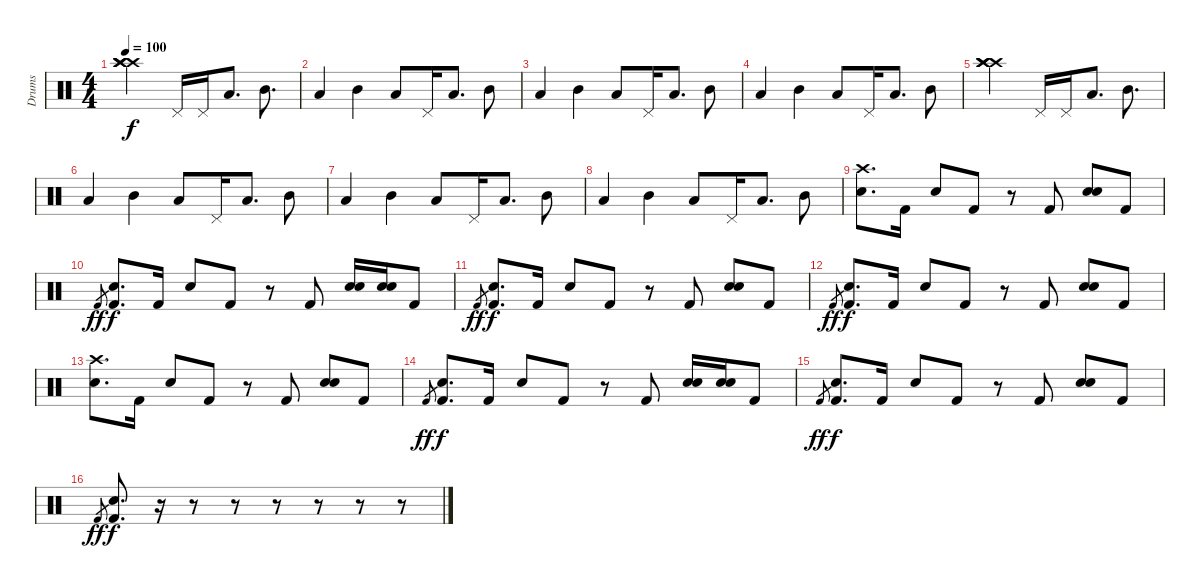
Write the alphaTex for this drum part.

\track ("Drums" "Drums") {instrument percussion}
\staff {score}
\articulation defaults
\ts (4 4)
\tempo 100
\clef neutral
\ks c
("Crash high (hit)" "Crash high (hit)" "Crash high (hit)" "Crash high (hit)").2{dy f} "Pedal Hi-Hat (hit)".16 "Pedal Hi-Hat (hit)".16 "Low Tom (hit)".8{d} "Mid Tom (hit)".8{d} |
"Low Tom (hit)".4 "Mid Tom (hit)".4 "Low Tom (hit)".8 "Pedal Hi-Hat (hit)".16 "Low Tom (hit)".8{d} "Mid Tom (hit)".8 |
"Low Tom (hit)".4 "Mid Tom (hit)".4 "Low Tom (hit)".8 "Pedal Hi-Hat (hit)".16 "Low Tom (hit)".8{d} "Mid Tom (hit)".8 |
"Low Tom (hit)".4 "Mid Tom (hit)".4 "Low Tom (hit)".8 "Pedal Hi-Hat (hit)".16 "Low Tom (hit)".8{d} "Mid Tom (hit)".8 |
("Crash high (hit)" "Crash high (hit)" "Crash high (hit)" "Crash high (hit)").2 "Pedal Hi-Hat (hit)".16 "Pedal Hi-Hat (hit)".16 "Low Tom (hit)".8{d} "Mid Tom (hit)".8{d} |
"Low Tom (hit)".4 "Mid Tom (hit)".4 "Low Tom (hit)".8 "Pedal Hi-Hat (hit)".16 "Low Tom (hit)".8{d} "Mid Tom (hit)".8 |
"Low Tom (hit)".4 "Mid Tom (hit)".4 "Low Tom (hit)".8 "Pedal Hi-Hat (hit)".16 "Low Tom (hit)".8{d} "Mid Tom (hit)".8 |
"Low Tom (hit)".4 "Mid Tom (hit)".4 "Low Tom (hit)".8 "Pedal Hi-Hat (hit)".16 "Low Tom (hit)".8{d} "Mid Tom (hit)".8 |
("Snare (hit) 2" "Crash high (hit)").8{d} "Kick (hit) 2".16 "Snare (hit) 2".8 "Kick (hit) 2".8 r.8 "Kick (hit) 2".8 ("Snare (hit) 2" "Electric Snare (hit)").8 "Kick (hit) 2".8 |
"Kick (hit) 2".8{gr dy ff} ("Snare (hit) 2" "Kick (hit) 2").8{d dy f} "Kick (hit) 2".16 "Snare (hit) 2".8 "Kick (hit) 2".8 r.8 "Kick (hit) 2".8 ("Snare (hit) 2" "Electric Snare (hit)").16 ("Snare (hit) 2" "Electric Snare (hit)").16 "Kick (hit) 2".8 |
"Kick (hit) 2".8{gr dy ff} ("Snare (hit) 2" "Kick (hit) 2").8{d dy f} "Kick (hit) 2".16 "Snare (hit) 2".8 "Kick (hit) 2".8 r.8 "Kick (hit) 2".8 ("Snare (hit) 2" "Electric Snare (hit)").8 "Kick (hit) 2".8 |
"Kick (hit) 2".8{gr dy ff} ("Snare (hit) 2" "Kick (hit) 2").8{d dy f} "Kick (hit) 2".16 "Snare (hit) 2".8 "Kick (hit) 2".8 r.8 "Kick (hit) 2".8 ("Snare (hit) 2" "Electric Snare (hit)").8 "Kick (hit) 2".8 |
("Snare (hit) 2" "Crash high (hit)").8{d} "Kick (hit) 2".16 "Snare (hit) 2".8 "Kick (hit) 2".8 r.8 "Kick (hit) 2".8 ("Snare (hit) 2" "Electric Snare (hit)").8 "Kick (hit) 2".8 |
"Kick (hit) 2".8{gr dy ff} ("Snare (hit) 2" "Kick (hit) 2").8{d dy f} "Kick (hit) 2".16 "Snare (hit) 2".8 "Kick (hit) 2".8 r.8 "Kick (hit) 2".8 ("Snare (hit) 2" "Electric Snare (hit)").16 ("Snare (hit) 2" "Electric Snare (hit)").16 "Kick (hit) 2".8 |
"Kick (hit) 2".8{gr dy ff} ("Snare (hit) 2" "Kick (hit) 2").8{d dy f} "Kick (hit) 2".16 "Snare (hit) 2".8 "Kick (hit) 2".8 r.8 "Kick (hit) 2".8 ("Snare (hit) 2" "Electric Snare (hit)").8 "Kick (hit) 2".8 |
"Kick (hit) 2".8{gr dy ff} ("Snare (hit) 2" "Kick (hit) 2").8{d dy f} r.16 r.8 r.8 r.8 r.8 r.8 r.8
